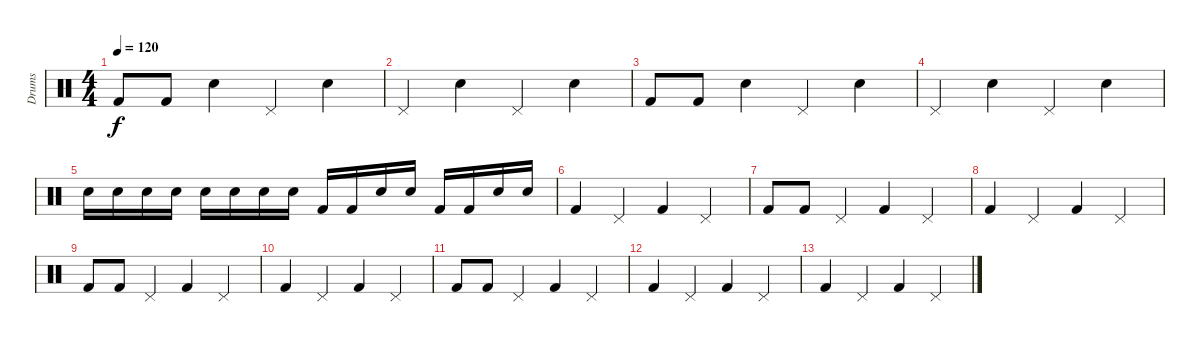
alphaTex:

\track ("Drums" "Drums") {instrument percussion}
\staff {score}
\articulation defaults
\ts (4 4)
\tempo 120
\clef neutral
\ks c "Kick (hit) 2".8{dy f} "Kick (hit) 2".8 "Snare (hit) 2".4 "Pedal Hi-Hat (hit)".4 "Snare (hit) 2".4
|
"Pedal Hi-Hat (hit)".4 "Snare (hit) 2".4 "Pedal Hi-Hat (hit)".4 "Snare (hit) 2".4 |
"Kick (hit) 2".8 "Kick (hit) 2".8 "Snare (hit) 2".4 "Pedal Hi-Hat (hit)".4 "Snare (hit) 2".4 |
"Pedal Hi-Hat (hit)".4 "Snare (hit) 2".4 "Pedal Hi-Hat (hit)".4 "Snare (hit) 2".4 |
"Snare (hit) 2".16 "Snare (hit) 2".16 "Snare (hit) 2".16 "Snare (hit) 2".16 "Snare (hit) 2".16 "Snare (hit) 2".16 "Snare (hit) 2".16 "Snare (hit) 2".16 "Kick (hit) 2".16 "Kick (hit) 2".16 "Snare (hit) 2".16 "Snare (hit) 2".16 "Kick (hit) 2".16 "Kick (hit) 2".16 "Snare (hit) 2".16 "Snare (hit) 2".16 |
"Kick (hit) 2".4 "Pedal Hi-Hat (hit)".4 "Kick (hit) 2".4 "Pedal Hi-Hat (hit)".4 |
"Kick (hit) 2".8 "Kick (hit) 2".8 "Pedal Hi-Hat (hit)".4 "Kick (hit) 2".4 "Pedal Hi-Hat (hit)".4 |
"Kick (hit) 2".4 "Pedal Hi-Hat (hit)".4 "Kick (hit) 2".4 "Pedal Hi-Hat (hit)".4 |
"Kick (hit) 2".8 "Kick (hit) 2".8 "Pedal Hi-Hat (hit)".4 "Kick (hit) 2".4 "Pedal Hi-Hat (hit)".4 |
"Kick (hit) 2".4 "Pedal Hi-Hat (hit)".4 "Kick (hit) 2".4 "Pedal Hi-Hat (hit)".4 |
"Kick (hit) 2".8 "Kick (hit) 2".8 "Pedal Hi-Hat (hit)".4 "Kick (hit) 2".4 "Pedal Hi-Hat (hit)".4 |
"Kick (hit) 2".4 "Pedal Hi-Hat (hit)".4 "Kick (hit) 2".4 "Pedal Hi-Hat (hit)".4 |
"Kick (hit) 2".4 "Pedal Hi-Hat (hit)".4 "Kick (hit) 2".4 "Pedal Hi-Hat (hit)".4
